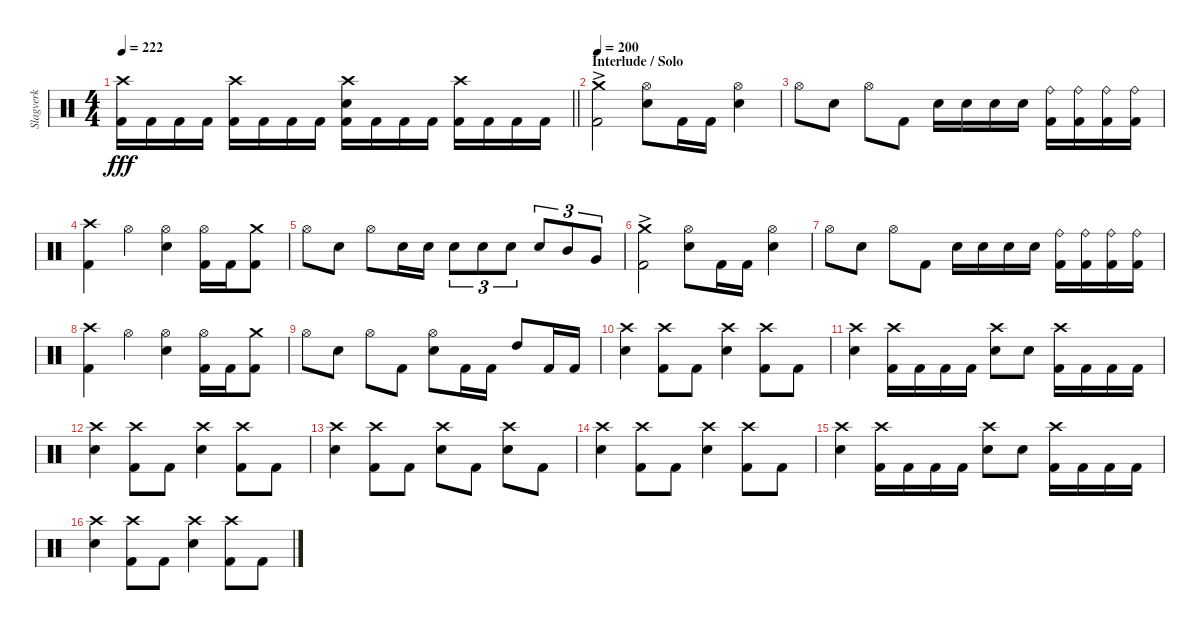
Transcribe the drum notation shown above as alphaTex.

\track ("Slagverk" "Slagverk") {instrument percussion}
\staff {score}
\articulation defaults
\ts (4 4)
\tempo 222
\clef neutral
\barLineRight lightlight
\ks c
("Crash high (hit)" "Kick (hit) 2").16{dy fff} "Kick (hit) 2".16 "Kick (hit) 2".16 "Kick (hit) 2".16 ("Crash high (hit)" "Kick (hit) 2").16 "Kick (hit) 2".16 "Kick (hit) 2".16 "Kick (hit) 2".16 ("Crash high (hit)" "Electric Snare (hit)" "Kick (hit) 2").16 "Kick (hit) 2".16 "Kick (hit) 2".16 "Kick (hit) 2".16 ("Crash high (hit)" "Kick (hit) 2").16 "Kick (hit) 2".16 "Kick (hit) 2".16 "Kick (hit) 2".16 |
\section ("" "Interlude / Solo")
\tempo 200
("Crash medium (hit)"{ac} "Kick (hit) 2").2 ("Hi-Hat (open)" "Electric Snare (hit)").8 "Kick (hit) 2".16 "Kick (hit) 2".16 ("Hi-Hat (open)" "Electric Snare (hit)").4 |
"Hi-Hat (open)".8 "Electric Snare (hit)".8 "Hi-Hat (open)".8 "Kick (hit) 2".8 "Electric Snare (hit)".16 "Electric Snare (hit)".16 "Electric Snare (hit)".16 "Electric Snare (hit)".16 ("Ride (bell)" "Kick (hit) 2").16 ("Ride (bell)" "Kick (hit) 2").16 ("Ride (bell)" "Kick (hit) 2").16 ("Ride (bell)" "Kick (hit) 2").16 |
("Crash high (hit)" "Kick (hit) 2").4 "Hi-Hat (open)".4 ("Hi-Hat (open)" "Electric Snare (hit)").4 ("Hi-Hat (open)" "Kick (hit) 2").16 "Kick (hit) 2".16 ("Crash medium (hit)" "Kick (hit) 2").8 |
"Hi-Hat (open)".8 "Electric Snare (hit)".8 "Hi-Hat (open)".8 "Electric Snare (hit)".16 "Electric Snare (hit)".16 "Electric Snare (hit)".8{tu (3 2)} "Electric Snare (hit)".8{tu (3 2)} "Electric Snare (hit)".8{tu (3 2)} "Electric Snare (hit)".8{tu (3 2)} "Mid Tom (hit)".8{tu (3 2)} "Very Low Tom (hit)".8{tu (3 2)} |
("Crash medium (hit)"{ac} "Kick (hit) 2").2 ("Hi-Hat (open)" "Electric Snare (hit)").8 "Kick (hit) 2".16 "Kick (hit) 2".16 ("Hi-Hat (open)" "Electric Snare (hit)").4 |
"Hi-Hat (open)".8 "Electric Snare (hit)".8 "Hi-Hat (open)".8 "Kick (hit) 2".8 "Electric Snare (hit)".16 "Electric Snare (hit)".16 "Electric Snare (hit)".16 "Electric Snare (hit)".16 ("Ride (bell)" "Kick (hit) 2").16 ("Ride (bell)" "Kick (hit) 2").16 ("Ride (bell)" "Kick (hit) 2").16 ("Ride (bell)" "Kick (hit) 2").16 |
("Crash high (hit)" "Kick (hit) 2").4 "Hi-Hat (open)".4 ("Hi-Hat (open)" "Electric Snare (hit)").4 ("Hi-Hat (open)" "Kick (hit) 2").16 "Kick (hit) 2".16 ("Crash medium (hit)" "Kick (hit) 2").8 |
"Hi-Hat (open)".8 "Electric Snare (hit)".8 "Hi-Hat (open)".8 "Kick (hit) 2".8 ("Hi-Hat (open)" "Electric Snare (hit)").8 "Kick (hit) 2".16 "Kick (hit) 2".16 "High Tom (hit)".8 "Kick (hit) 2".16 "Kick (hit) 2".16 |
("Crash high (hit)" "Electric Snare (hit)").4 ("Crash high (hit)" "Kick (hit) 2").8 "Kick (hit) 2".8 ("Crash high (hit)" "Electric Snare (hit)").4 ("Crash high (hit)" "Kick (hit) 2").8 "Kick (hit) 2".8 |
("Crash high (hit)" "Electric Snare (hit)").4 ("Crash high (hit)" "Kick (hit) 2").16 "Kick (hit) 2".16 "Kick (hit) 2".16 "Kick (hit) 2".16 ("Crash high (hit)" "Electric Snare (hit)").8 "Electric Snare (hit)".8 ("Crash high (hit)" "Kick (hit) 2").16 "Kick (hit) 2".16 "Kick (hit) 2".16 "Kick (hit) 2".16 |
("Crash high (hit)" "Electric Snare (hit)").4 ("Crash high (hit)" "Kick (hit) 2").8 "Kick (hit) 2".8 ("Crash high (hit)" "Electric Snare (hit)").4 ("Crash high (hit)" "Kick (hit) 2").8 "Kick (hit) 2".8 |
("Crash high (hit)" "Electric Snare (hit)").4 ("Crash high (hit)" "Kick (hit) 2").8 "Kick (hit) 2".8 ("Crash high (hit)" "Electric Snare (hit)").8 "Kick (hit) 2".8 ("Crash high (hit)" "Electric Snare (hit)").8 "Kick (hit) 2".8 |
("Crash high (hit)" "Electric Snare (hit)").4 ("Crash high (hit)" "Kick (hit) 2").8 "Kick (hit) 2".8 ("Crash high (hit)" "Electric Snare (hit)").4 ("Crash high (hit)" "Kick (hit) 2").8 "Kick (hit) 2".8 |
("Crash high (hit)" "Electric Snare (hit)").4 ("Crash high (hit)" "Kick (hit) 2").16 "Kick (hit) 2".16 "Kick (hit) 2".16 "Kick (hit) 2".16 ("Crash high (hit)" "Electric Snare (hit)").8 "Electric Snare (hit)".8 ("Crash high (hit)" "Kick (hit) 2").16 "Kick (hit) 2".16 "Kick (hit) 2".16 "Kick (hit) 2".16 |
("Crash high (hit)" "Electric Snare (hit)").4 ("Crash high (hit)" "Kick (hit) 2").8 "Kick (hit) 2".8 ("Crash high (hit)" "Electric Snare (hit)").4 ("Crash high (hit)" "Kick (hit) 2").8 "Kick (hit) 2".8
